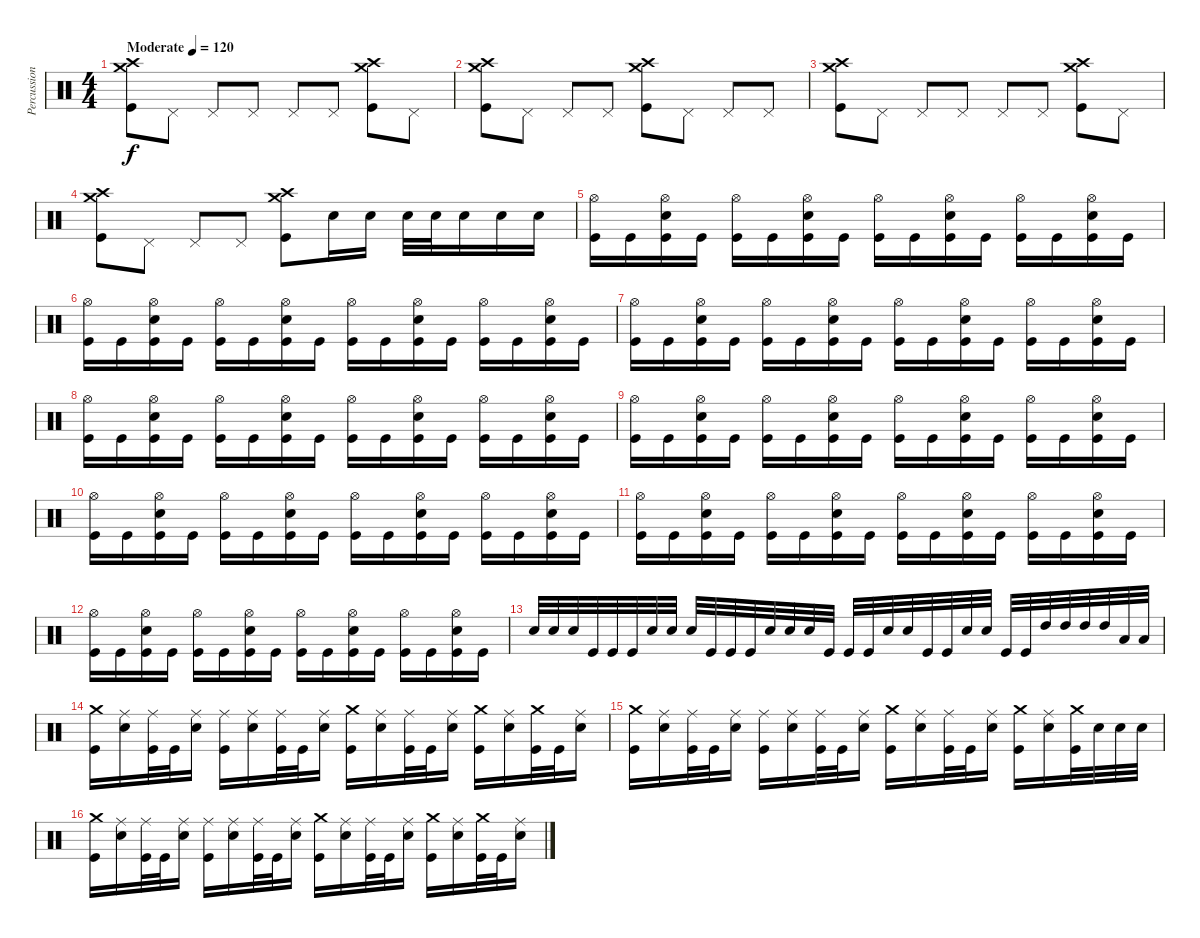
\track ("Percussion" "Percussion") {instrument percussion}
\staff {score}
\articulation defaults
\ts (4 4)
\tempo (120 "Moderate")
\clef neutral
\ks c
("Crash medium (hit)" "Crash high (hit)" "Kick (hit)").8{dy f} "Pedal Hi-Hat (hit)".8 "Pedal Hi-Hat (hit)".8 "Pedal Hi-Hat (hit)".8 "Pedal Hi-Hat (hit)".8 "Pedal Hi-Hat (hit)".8 ("Crash medium (hit)" "Crash high (hit)" "Kick (hit)").8 "Pedal Hi-Hat (hit)".8 |
("Crash medium (hit)" "Crash high (hit)" "Kick (hit)").8 "Pedal Hi-Hat (hit)".8 "Pedal Hi-Hat (hit)".8 "Pedal Hi-Hat (hit)".8 ("Crash medium (hit)" "Crash high (hit)" "Kick (hit)").8 "Pedal Hi-Hat (hit)".8 "Pedal Hi-Hat (hit)".8 "Pedal Hi-Hat (hit)".8 |
("Crash medium (hit)" "Crash high (hit)" "Kick (hit)").8 "Pedal Hi-Hat (hit)".8 "Pedal Hi-Hat (hit)".8 "Pedal Hi-Hat (hit)".8 "Pedal Hi-Hat (hit)".8 "Pedal Hi-Hat (hit)".8 ("Crash medium (hit)" "Crash high (hit)" "Kick (hit)").8 "Pedal Hi-Hat (hit)".8 |
("Crash medium (hit)" "Crash high (hit)" "Kick (hit)").8 "Pedal Hi-Hat (hit)".8 "Pedal Hi-Hat (hit)".8 "Pedal Hi-Hat (hit)".8 ("Crash medium (hit)" "Crash high (hit)" "Kick (hit)").8 "Snare (hit) 2".16 "Snare (hit) 2".16 "Snare (hit) 2".32 "Snare (hit) 2".32 "Snare (hit) 2".16 "Snare (hit) 2".16 "Snare (hit) 2".16 |
("Hi-Hat (open)" "Kick (hit)").16 "Kick (hit)".16 ("Hi-Hat (open)" "Snare (hit) 2" "Kick (hit)").16 "Kick (hit)".16 ("Hi-Hat (open)" "Kick (hit)").16 "Kick (hit)".16 ("Hi-Hat (open)" "Snare (hit) 2" "Kick (hit)").16 "Kick (hit)".16 ("Hi-Hat (open)" "Kick (hit)").16 "Kick (hit)".16 ("Hi-Hat (open)" "Snare (hit) 2" "Kick (hit)").16 "Kick (hit)".16 ("Hi-Hat (open)" "Kick (hit)").16 "Kick (hit)".16 ("Hi-Hat (open)" "Snare (hit) 2" "Kick (hit)").16 "Kick (hit)".16 |
("Hi-Hat (open)" "Kick (hit)").16 "Kick (hit)".16 ("Hi-Hat (open)" "Snare (hit) 2" "Kick (hit)").16 "Kick (hit)".16 ("Hi-Hat (open)" "Kick (hit)").16 "Kick (hit)".16 ("Hi-Hat (open)" "Snare (hit) 2" "Kick (hit)").16 "Kick (hit)".16 ("Hi-Hat (open)" "Kick (hit)").16 "Kick (hit)".16 ("Hi-Hat (open)" "Snare (hit) 2" "Kick (hit)").16 "Kick (hit)".16 ("Hi-Hat (open)" "Kick (hit)").16 "Kick (hit)".16 ("Hi-Hat (open)" "Snare (hit) 2" "Kick (hit)").16 "Kick (hit)".16 |
("Hi-Hat (open)" "Kick (hit)").16 "Kick (hit)".16 ("Hi-Hat (open)" "Snare (hit) 2" "Kick (hit)").16 "Kick (hit)".16 ("Hi-Hat (open)" "Kick (hit)").16 "Kick (hit)".16 ("Hi-Hat (open)" "Snare (hit) 2" "Kick (hit)").16 "Kick (hit)".16 ("Hi-Hat (open)" "Kick (hit)").16 "Kick (hit)".16 ("Hi-Hat (open)" "Snare (hit) 2" "Kick (hit)").16 "Kick (hit)".16 ("Hi-Hat (open)" "Kick (hit)").16 "Kick (hit)".16 ("Hi-Hat (open)" "Snare (hit) 2" "Kick (hit)").16 "Kick (hit)".16 |
("Hi-Hat (open)" "Kick (hit)").16 "Kick (hit)".16 ("Hi-Hat (open)" "Snare (hit) 2" "Kick (hit)").16 "Kick (hit)".16 ("Hi-Hat (open)" "Kick (hit)").16 "Kick (hit)".16 ("Hi-Hat (open)" "Snare (hit) 2" "Kick (hit)").16 "Kick (hit)".16 ("Hi-Hat (open)" "Kick (hit)").16 "Kick (hit)".16 ("Hi-Hat (open)" "Snare (hit) 2" "Kick (hit)").16 "Kick (hit)".16 ("Hi-Hat (open)" "Kick (hit)").16 "Kick (hit)".16 ("Hi-Hat (open)" "Snare (hit) 2" "Kick (hit)").16 "Kick (hit)".16 |
("Hi-Hat (open)" "Kick (hit)").16 "Kick (hit)".16 ("Hi-Hat (open)" "Snare (hit) 2" "Kick (hit)").16 "Kick (hit)".16 ("Hi-Hat (open)" "Kick (hit)").16 "Kick (hit)".16 ("Hi-Hat (open)" "Snare (hit) 2" "Kick (hit)").16 "Kick (hit)".16 ("Hi-Hat (open)" "Kick (hit)").16 "Kick (hit)".16 ("Hi-Hat (open)" "Snare (hit) 2" "Kick (hit)").16 "Kick (hit)".16 ("Hi-Hat (open)" "Kick (hit)").16 "Kick (hit)".16 ("Hi-Hat (open)" "Snare (hit) 2" "Kick (hit)").16 "Kick (hit)".16 |
("Hi-Hat (open)" "Kick (hit)").16 "Kick (hit)".16 ("Hi-Hat (open)" "Snare (hit) 2" "Kick (hit)").16 "Kick (hit)".16 ("Hi-Hat (open)" "Kick (hit)").16 "Kick (hit)".16 ("Hi-Hat (open)" "Snare (hit) 2" "Kick (hit)").16 "Kick (hit)".16 ("Hi-Hat (open)" "Kick (hit)").16 "Kick (hit)".16 ("Hi-Hat (open)" "Snare (hit) 2" "Kick (hit)").16 "Kick (hit)".16 ("Hi-Hat (open)" "Kick (hit)").16 "Kick (hit)".16 ("Hi-Hat (open)" "Snare (hit) 2" "Kick (hit)").16 "Kick (hit)".16 |
("Hi-Hat (open)" "Kick (hit)").16 "Kick (hit)".16 ("Hi-Hat (open)" "Snare (hit) 2" "Kick (hit)").16 "Kick (hit)".16 ("Hi-Hat (open)" "Kick (hit)").16 "Kick (hit)".16 ("Hi-Hat (open)" "Snare (hit) 2" "Kick (hit)").16 "Kick (hit)".16 ("Hi-Hat (open)" "Kick (hit)").16 "Kick (hit)".16 ("Hi-Hat (open)" "Snare (hit) 2" "Kick (hit)").16 "Kick (hit)".16 ("Hi-Hat (open)" "Kick (hit)").16 "Kick (hit)".16 ("Hi-Hat (open)" "Snare (hit) 2" "Kick (hit)").16 "Kick (hit)".16 |
("Hi-Hat (open)" "Kick (hit)").16 "Kick (hit)".16 ("Hi-Hat (open)" "Snare (hit) 2" "Kick (hit)").16 "Kick (hit)".16 ("Hi-Hat (open)" "Kick (hit)").16 "Kick (hit)".16 ("Hi-Hat (open)" "Snare (hit) 2" "Kick (hit)").16 "Kick (hit)".16 ("Hi-Hat (open)" "Kick (hit)").16 "Kick (hit)".16 ("Hi-Hat (open)" "Snare (hit) 2" "Kick (hit)").16 "Kick (hit)".16 ("Hi-Hat (open)" "Kick (hit)").16 "Kick (hit)".16 ("Hi-Hat (open)" "Snare (hit) 2" "Kick (hit)").16 "Kick (hit)".16 |
"Snare (hit) 2".32 "Snare (hit) 2".32 "Snare (hit) 2".32 "Kick (hit)".32 "Kick (hit)".32 "Kick (hit)".32 "Snare (hit) 2".32 "Snare (hit) 2".32 "Snare (hit) 2".32 "Kick (hit)".32 "Kick (hit)".32 "Kick (hit)".32 "Snare (hit) 2".32 "Snare (hit) 2".32 "Snare (hit) 2".32 "Kick (hit)".32 "Kick (hit)".32 "Kick (hit)".32 "Snare (hit) 2".32 "Snare (hit) 2".32 "Kick (hit)".32 "Kick (hit)".32 "Snare (hit) 2".32 "Snare (hit) 2".32 "Kick (hit)".32 "Kick (hit)".32 "High Tom (hit)".32 "High Tom (hit)".32 "High Tom (hit)".32 "High Tom (hit)".32 "Low Tom (hit)".32 "Low Tom (hit)".32 |
("Crash medium (hit)" "Kick (hit)").16 ("Ride (middle)" "Snare (hit) 2").16 ("Ride (middle)" "Kick (hit)").32 "Kick (hit)".32 ("Ride (middle)" "Snare (hit) 2").16 ("Ride (middle)" "Kick (hit)").16 ("Ride (middle)" "Snare (hit) 2").16 ("Ride (middle)" "Kick (hit)").32 "Kick (hit)".32 ("Ride (middle)" "Snare (hit) 2").16 ("Crash medium (hit)" "Kick (hit)").16 ("Ride (middle)" "Snare (hit) 2").16 ("Ride (middle)" "Kick (hit)").32 "Kick (hit)".32 ("Ride (middle)" "Snare (hit) 2").16 ("Crash medium (hit)" "Kick (hit)").16 ("Ride (middle)" "Snare (hit) 2").16 ("Crash medium (hit)" "Kick (hit)").32 "Kick (hit)".32 ("Ride (middle)" "Snare (hit) 2").16 |
("Crash medium (hit)" "Kick (hit)").16 ("Ride (middle)" "Snare (hit) 2").16 ("Ride (middle)" "Kick (hit)").32 "Kick (hit)".32 ("Ride (middle)" "Snare (hit) 2").16 ("Ride (middle)" "Kick (hit)").16 ("Ride (middle)" "Snare (hit) 2").16 ("Ride (middle)" "Kick (hit)").32 "Kick (hit)".32 ("Ride (middle)" "Snare (hit) 2").16 ("Crash medium (hit)" "Kick (hit)").16 ("Ride (middle)" "Snare (hit) 2").16 ("Ride (middle)" "Kick (hit)").32 "Kick (hit)".32 ("Ride (middle)" "Snare (hit) 2").16 ("Crash medium (hit)" "Kick (hit)").16 ("Ride (middle)" "Snare (hit) 2").16 ("Crash medium (hit)" "Kick (hit)").32 "Snare (hit) 2".32 "Snare (hit) 2".32 "Snare (hit) 2".32 |
("Crash medium (hit)" "Kick (hit)").16 ("Ride (middle)" "Snare (hit) 2").16 ("Ride (middle)" "Kick (hit)").32 "Kick (hit)".32 ("Ride (middle)" "Snare (hit) 2").16 ("Ride (middle)" "Kick (hit)").16 ("Ride (middle)" "Snare (hit) 2").16 ("Ride (middle)" "Kick (hit)").32 "Kick (hit)".32 ("Ride (middle)" "Snare (hit) 2").16 ("Crash medium (hit)" "Kick (hit)").16 ("Ride (middle)" "Snare (hit) 2").16 ("Ride (middle)" "Kick (hit)").32 "Kick (hit)".32 ("Ride (middle)" "Snare (hit) 2").16 ("Crash medium (hit)" "Kick (hit)").16 ("Ride (middle)" "Snare (hit) 2").16 ("Crash medium (hit)" "Kick (hit)").32 "Kick (hit)".32 ("Ride (middle)" "Snare (hit) 2").16
